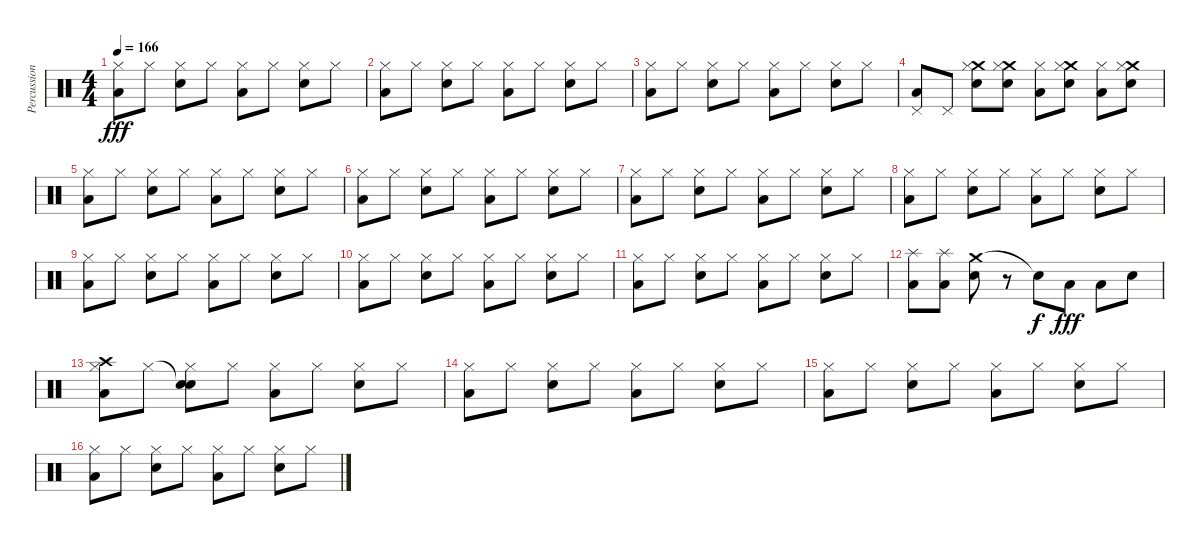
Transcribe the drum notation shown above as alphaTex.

\track ("Percussions" "Percussion") {instrument percussion}
\staff {score}
\articulation defaults
\ts (4 4)
\tempo 166
\clef neutral
\ks c
("Low Tom (hit)" "Hi-Hat (closed)").8{dy fff} "Hi-Hat (closed)".8 ("Snare (hit) 2" "Hi-Hat (closed)").8 "Hi-Hat (closed)".8 ("Low Tom (hit)" "Hi-Hat (closed)").8 "Hi-Hat (closed)".8 ("Snare (hit) 2" "Hi-Hat (closed)").8 "Hi-Hat (closed)".8 |
("Low Tom (hit)" "Hi-Hat (closed)").8 "Hi-Hat (closed)".8 ("Snare (hit) 2" "Hi-Hat (closed)").8 "Hi-Hat (closed)".8 ("Low Tom (hit)" "Hi-Hat (closed)").8 "Hi-Hat (closed)".8 ("Snare (hit) 2" "Hi-Hat (closed)").8 "Hi-Hat (closed)".8 |
("Low Tom (hit)" "Hi-Hat (closed)").8 "Hi-Hat (closed)".8 ("Snare (hit) 2" "Hi-Hat (closed)").8 "Hi-Hat (closed)".8 ("Low Tom (hit)" "Hi-Hat (closed)").8 "Hi-Hat (closed)".8 ("Snare (hit) 2" "Hi-Hat (closed)").8 "Hi-Hat (closed)".8 |
("Low Tom (hit)" "Pedal Hi-Hat (hit)").8 "Pedal Hi-Hat (hit)".8 ("Crash medium (hit)" "Snare (hit) 2" "Hi-Hat (closed)").8 ("Crash medium (hit)" "Snare (hit) 2" "Hi-Hat (closed)").8 ("Low Tom (hit)" "Hi-Hat (closed)").8 ("Crash medium (hit)" "Snare (hit) 2" "Hi-Hat (closed)").8 ("Low Tom (hit)" "Hi-Hat (closed)").8 ("Crash medium (hit)" "Snare (hit) 2" "Hi-Hat (closed)").8 |
("Low Tom (hit)" "Hi-Hat (closed)").8 "Hi-Hat (closed)".8 ("Snare (hit) 2" "Hi-Hat (closed)").8 "Hi-Hat (closed)".8 ("Low Tom (hit)" "Hi-Hat (closed)").8 "Hi-Hat (closed)".8 ("Snare (hit) 2" "Hi-Hat (closed)").8 "Hi-Hat (closed)".8 |
("Low Tom (hit)" "Hi-Hat (closed)").8 "Hi-Hat (closed)".8 ("Snare (hit) 2" "Hi-Hat (closed)").8 "Hi-Hat (closed)".8 ("Low Tom (hit)" "Hi-Hat (closed)").8 "Hi-Hat (closed)".8 ("Snare (hit) 2" "Hi-Hat (closed)").8 "Hi-Hat (closed)".8 |
("Low Tom (hit)" "Hi-Hat (closed)").8 "Hi-Hat (closed)".8 ("Snare (hit) 2" "Hi-Hat (closed)").8 "Hi-Hat (closed)".8 ("Low Tom (hit)" "Hi-Hat (closed)").8 "Hi-Hat (closed)".8 ("Snare (hit) 2" "Hi-Hat (closed)").8 "Hi-Hat (closed)".8 |
("Low Tom (hit)" "Hi-Hat (closed)").8 "Hi-Hat (closed)".8 ("Snare (hit) 2" "Hi-Hat (closed)").8 "Hi-Hat (closed)".8 ("Low Tom (hit)" "Hi-Hat (closed)").8 "Hi-Hat (closed)".8 ("Snare (hit) 2" "Hi-Hat (closed)").8 "Hi-Hat (closed)".8 |
("Low Tom (hit)" "Hi-Hat (closed)").8 "Hi-Hat (closed)".8 ("Snare (hit) 2" "Hi-Hat (closed)").8 "Hi-Hat (closed)".8 ("Low Tom (hit)" "Hi-Hat (closed)").8 "Hi-Hat (closed)".8 ("Snare (hit) 2" "Hi-Hat (closed)").8 "Hi-Hat (closed)".8 |
("Low Tom (hit)" "Hi-Hat (closed)").8 "Hi-Hat (closed)".8 ("Snare (hit) 2" "Hi-Hat (closed)").8 "Hi-Hat (closed)".8 ("Low Tom (hit)" "Hi-Hat (closed)").8 "Hi-Hat (closed)".8 ("Snare (hit) 2" "Hi-Hat (closed)").8 "Hi-Hat (closed)".8 |
("Low Tom (hit)" "Hi-Hat (closed)").8 "Hi-Hat (closed)".8 ("Snare (hit) 2" "Hi-Hat (closed)").8 "Hi-Hat (closed)".8 ("Low Tom (hit)" "Hi-Hat (closed)").8 "Hi-Hat (closed)".8 ("Snare (hit) 2" "Hi-Hat (closed)").8 "Hi-Hat (closed)".8 |
("Splash (hit)" "Low Tom (hit)").8 ("Splash (hit)" "Low Tom (hit)").8 ("Crash medium (hit)" "Snare (hit) 2").8 r.8 "Snare (hit)"{t}.8{dy f} "Low Tom (hit)".8{dy fff} "Low Tom (hit)".8 "Snare (hit) 2".8 |
("Crash high (hit)" "Low Tom (hit)" "Hi-Hat (closed)").8 "Hi-Hat (closed)".8 ("Snare (hit)"{t} "Snare (hit) 2" "Hi-Hat (closed)").8 "Hi-Hat (closed)".8 ("Low Tom (hit)" "Hi-Hat (closed)").8 "Hi-Hat (closed)".8 ("Snare (hit) 2" "Hi-Hat (closed)").8 "Hi-Hat (closed)".8 |
("Low Tom (hit)" "Hi-Hat (closed)").8 "Hi-Hat (closed)".8 ("Snare (hit) 2" "Hi-Hat (closed)").8 "Hi-Hat (closed)".8 ("Low Tom (hit)" "Hi-Hat (closed)").8 "Hi-Hat (closed)".8 ("Snare (hit) 2" "Hi-Hat (closed)").8 "Hi-Hat (closed)".8 |
("Low Tom (hit)" "Hi-Hat (closed)").8 "Hi-Hat (closed)".8 ("Snare (hit) 2" "Hi-Hat (closed)").8 "Hi-Hat (closed)".8 ("Low Tom (hit)" "Hi-Hat (closed)").8 "Hi-Hat (closed)".8 ("Snare (hit) 2" "Hi-Hat (closed)").8 "Hi-Hat (closed)".8 |
("Low Tom (hit)" "Hi-Hat (closed)").8 "Hi-Hat (closed)".8 ("Snare (hit) 2" "Hi-Hat (closed)").8 "Hi-Hat (closed)".8 ("Low Tom (hit)" "Hi-Hat (closed)").8 "Hi-Hat (closed)".8 ("Snare (hit) 2" "Hi-Hat (closed)").8 "Hi-Hat (closed)".8
